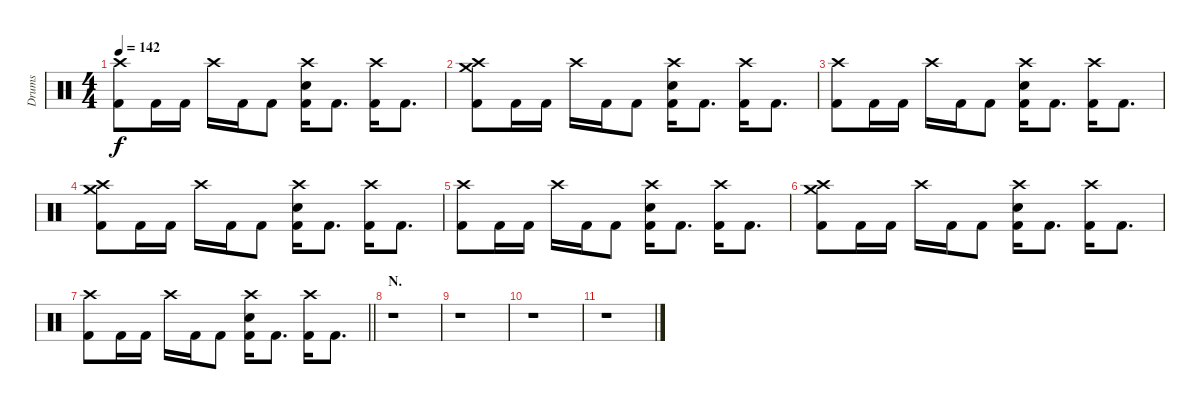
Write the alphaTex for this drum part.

\track ("Drums" "Drums") {instrument percussion}
\staff {score}
\articulation defaults
\ts (4 4)
\tempo 142
\clef neutral
\ks c
("Crash high (hit)" "Kick (hit) 2").8{dy f} "Kick (hit) 2".16 "Kick (hit) 2".16 "Crash high (hit)".16 "Kick (hit) 2".16 "Kick (hit) 2".8 ("Crash high (hit)" "Electric Snare (hit)" "Kick (hit) 2").16 "Kick (hit) 2".8{d} ("Crash high (hit)" "Kick (hit) 2").16 "Kick (hit) 2".8{d} |
("Crash medium (hit)" "Crash high (hit)" "Kick (hit) 2").8 "Kick (hit) 2".16 "Kick (hit) 2".16 "Crash high (hit)".16 "Kick (hit) 2".16 "Kick (hit) 2".8 ("Crash high (hit)" "Electric Snare (hit)" "Kick (hit) 2").16 "Kick (hit) 2".8{d} ("Crash high (hit)" "Kick (hit) 2").16 "Kick (hit) 2".8{d} |
("Crash high (hit)" "Kick (hit) 2").8 "Kick (hit) 2".16 "Kick (hit) 2".16 "Crash high (hit)".16 "Kick (hit) 2".16 "Kick (hit) 2".8 ("Crash high (hit)" "Electric Snare (hit)" "Kick (hit) 2").16 "Kick (hit) 2".8{d} ("Crash high (hit)" "Kick (hit) 2").16 "Kick (hit) 2".8{d} |
("Crash medium (hit)" "Crash high (hit)" "Kick (hit) 2").8 "Kick (hit) 2".16 "Kick (hit) 2".16 "Crash high (hit)".16 "Kick (hit) 2".16 "Kick (hit) 2".8 ("Crash high (hit)" "Electric Snare (hit)" "Kick (hit) 2").16 "Kick (hit) 2".8{d} ("Crash high (hit)" "Kick (hit) 2").16 "Kick (hit) 2".8{d} |
("Crash high (hit)" "Kick (hit) 2").8 "Kick (hit) 2".16 "Kick (hit) 2".16 "Crash high (hit)".16 "Kick (hit) 2".16 "Kick (hit) 2".8 ("Crash high (hit)" "Electric Snare (hit)" "Kick (hit) 2").16 "Kick (hit) 2".8{d} ("Crash high (hit)" "Kick (hit) 2").16 "Kick (hit) 2".8{d} |
("Crash medium (hit)" "Crash high (hit)" "Kick (hit) 2").8 "Kick (hit) 2".16 "Kick (hit) 2".16 "Crash high (hit)".16 "Kick (hit) 2".16 "Kick (hit) 2".8 ("Crash high (hit)" "Electric Snare (hit)" "Kick (hit) 2").16 "Kick (hit) 2".8{d} ("Crash high (hit)" "Kick (hit) 2").16 "Kick (hit) 2".8{d} |
\barLineRight lightlight
("Crash high (hit)" "Kick (hit) 2").8 "Kick (hit) 2".16 "Kick (hit) 2".16 "Crash high (hit)".16 "Kick (hit) 2".16 "Kick (hit) 2".8 ("Crash high (hit)" "Electric Snare (hit)" "Kick (hit) 2").16 "Kick (hit) 2".8{d} ("Crash high (hit)" "Kick (hit) 2").16 "Kick (hit) 2".8{d} |
\section ("" "N.")
r.1 |
r.1 |
r.1 |
r.1
